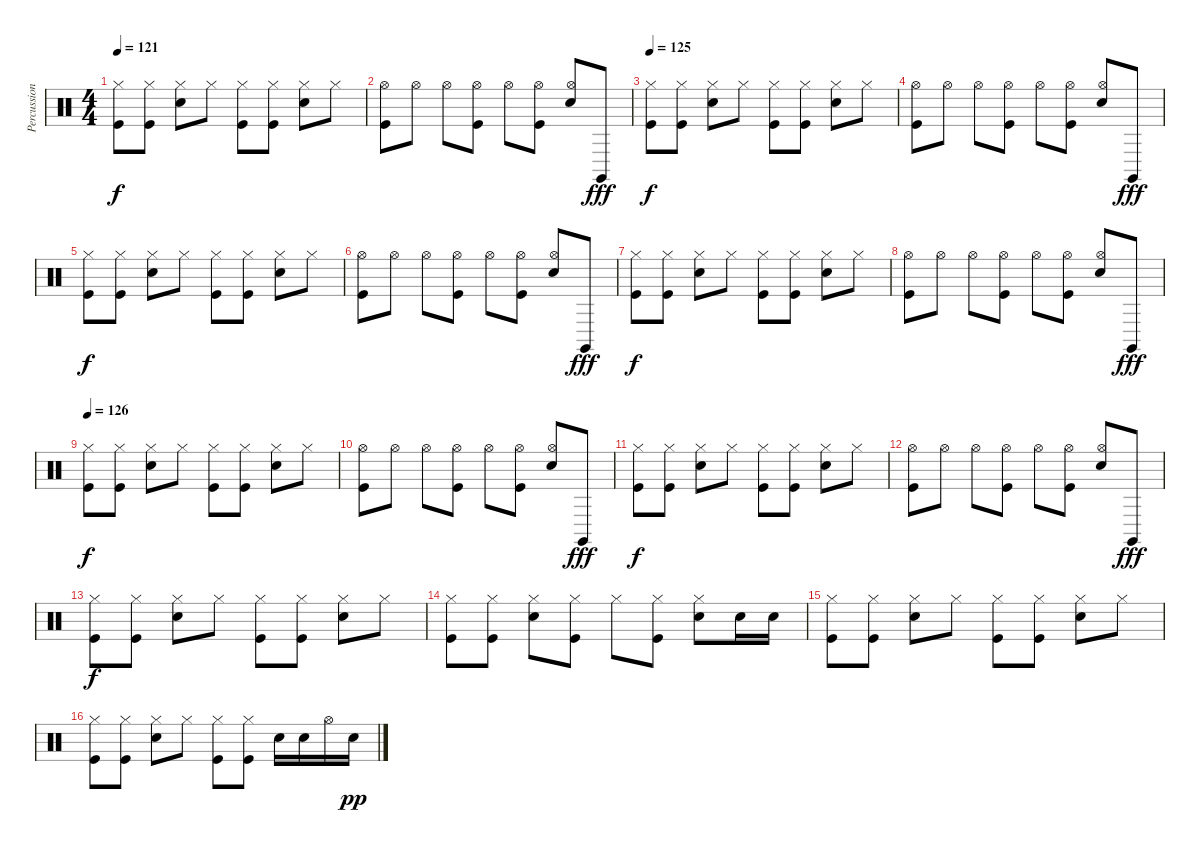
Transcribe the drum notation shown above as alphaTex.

\track ("Percussion" "Percussion") {instrument percussion}
\staff {score}
\articulation defaults
\ts (4 4)
\tempo 121
\clef neutral
\ks c
("Hi-Hat (closed)" "Kick (hit)").8{dy f} ("Hi-Hat (closed)" "Kick (hit)").8 ("Hi-Hat (closed)" "Snare (hit) 2").8 "Hi-Hat (closed)".8 ("Hi-Hat (closed)" "Kick (hit)").8 ("Hi-Hat (closed)" "Kick (hit)").8 ("Hi-Hat (closed)" "Snare (hit) 2").8 "Hi-Hat (closed)".8 |
("Hi-Hat (open)" "Kick (hit)").8 "Hi-Hat (open)".8 "Hi-Hat (open)".8 ("Hi-Hat (open)" "Kick (hit)").8 "Hi-Hat (open)".8 ("Hi-Hat (open)" "Kick (hit)").8 ("Hi-Hat (open)" "Snare (hit) 2").8 "Claves (hit)".8{dy fff} |
\tempo 125
("Hi-Hat (closed)" "Kick (hit)").8{dy f} ("Hi-Hat (closed)" "Kick (hit)").8 ("Hi-Hat (closed)" "Snare (hit) 2").8 "Hi-Hat (closed)".8 ("Hi-Hat (closed)" "Kick (hit)").8 ("Hi-Hat (closed)" "Kick (hit)").8 ("Hi-Hat (closed)" "Snare (hit) 2").8 "Hi-Hat (closed)".8 |
("Hi-Hat (open)" "Kick (hit)").8 "Hi-Hat (open)".8 "Hi-Hat (open)".8 ("Hi-Hat (open)" "Kick (hit)").8 "Hi-Hat (open)".8 ("Hi-Hat (open)" "Kick (hit)").8 ("Hi-Hat (open)" "Snare (hit) 2").8 "Claves (hit)".8{dy fff} |
("Hi-Hat (closed)" "Kick (hit)").8{dy f} ("Hi-Hat (closed)" "Kick (hit)").8 ("Hi-Hat (closed)" "Snare (hit) 2").8 "Hi-Hat (closed)".8 ("Hi-Hat (closed)" "Kick (hit)").8 ("Hi-Hat (closed)" "Kick (hit)").8 ("Hi-Hat (closed)" "Snare (hit) 2").8 "Hi-Hat (closed)".8 |
("Hi-Hat (open)" "Kick (hit)").8 "Hi-Hat (open)".8 "Hi-Hat (open)".8 ("Hi-Hat (open)" "Kick (hit)").8 "Hi-Hat (open)".8 ("Hi-Hat (open)" "Kick (hit)").8 ("Hi-Hat (open)" "Snare (hit) 2").8 "Claves (hit)".8{dy fff} |
("Hi-Hat (closed)" "Kick (hit)").8{dy f} ("Hi-Hat (closed)" "Kick (hit)").8 ("Hi-Hat (closed)" "Snare (hit) 2").8 "Hi-Hat (closed)".8 ("Hi-Hat (closed)" "Kick (hit)").8 ("Hi-Hat (closed)" "Kick (hit)").8 ("Hi-Hat (closed)" "Snare (hit) 2").8 "Hi-Hat (closed)".8 |
("Hi-Hat (open)" "Kick (hit)").8 "Hi-Hat (open)".8 "Hi-Hat (open)".8 ("Hi-Hat (open)" "Kick (hit)").8 "Hi-Hat (open)".8 ("Hi-Hat (open)" "Kick (hit)").8 ("Hi-Hat (open)" "Snare (hit) 2").8 "Claves (hit)".8{dy fff} |
\tempo 126
("Hi-Hat (closed)" "Kick (hit)").8{dy f} ("Hi-Hat (closed)" "Kick (hit)").8 ("Hi-Hat (closed)" "Snare (hit) 2").8 "Hi-Hat (closed)".8 ("Hi-Hat (closed)" "Kick (hit)").8 ("Hi-Hat (closed)" "Kick (hit)").8 ("Hi-Hat (closed)" "Snare (hit) 2").8 "Hi-Hat (closed)".8 |
("Hi-Hat (open)" "Kick (hit)").8 "Hi-Hat (open)".8 "Hi-Hat (open)".8 ("Hi-Hat (open)" "Kick (hit)").8 "Hi-Hat (open)".8 ("Hi-Hat (open)" "Kick (hit)").8 ("Hi-Hat (open)" "Snare (hit) 2").8 "Claves (hit)".8{dy fff} |
("Hi-Hat (closed)" "Kick (hit)").8{dy f} ("Hi-Hat (closed)" "Kick (hit)").8 ("Hi-Hat (closed)" "Snare (hit) 2").8 "Hi-Hat (closed)".8 ("Hi-Hat (closed)" "Kick (hit)").8 ("Hi-Hat (closed)" "Kick (hit)").8 ("Hi-Hat (closed)" "Snare (hit) 2").8 "Hi-Hat (closed)".8 |
("Hi-Hat (open)" "Kick (hit)").8 "Hi-Hat (open)".8 "Hi-Hat (open)".8 ("Hi-Hat (open)" "Kick (hit)").8 "Hi-Hat (open)".8 ("Hi-Hat (open)" "Kick (hit)").8 ("Hi-Hat (open)" "Snare (hit) 2").8 "Claves (hit)".8{dy fff} |
("Hi-Hat (closed)" "Kick (hit)").8{dy f} ("Hi-Hat (closed)" "Kick (hit)").8 ("Hi-Hat (closed)" "Snare (hit) 2").8 "Hi-Hat (closed)".8 ("Hi-Hat (closed)" "Kick (hit)").8 ("Hi-Hat (closed)" "Kick (hit)").8 ("Hi-Hat (closed)" "Snare (hit) 2").8 "Hi-Hat (closed)".8 |
("Hi-Hat (closed)" "Kick (hit)").8 ("Hi-Hat (closed)" "Kick (hit)").8 ("Hi-Hat (closed)" "Snare (hit) 2").8 ("Hi-Hat (closed)" "Kick (hit)").8 "Hi-Hat (closed)".8 ("Hi-Hat (closed)" "Kick (hit)").8 ("Hi-Hat (closed)" "Snare (hit) 2").8 "Snare (hit) 2".16 "Snare (hit) 2".16 |
("Hi-Hat (closed)" "Kick (hit)").8 ("Hi-Hat (closed)" "Kick (hit)").8 ("Hi-Hat (closed)" "Snare (hit) 2").8 "Hi-Hat (closed)".8 ("Hi-Hat (closed)" "Kick (hit)").8 ("Hi-Hat (closed)" "Kick (hit)").8 ("Hi-Hat (closed)" "Snare (hit) 2").8 "Hi-Hat (closed)".8 |
("Hi-Hat (closed)" "Kick (hit)").8 ("Hi-Hat (closed)" "Kick (hit)").8 ("Hi-Hat (closed)" "Snare (hit) 2").8 "Hi-Hat (closed)".8 ("Hi-Hat (closed)" "Kick (hit)").8 ("Hi-Hat (closed)" "Kick (hit)").8 "Snare (hit) 2".16 "Snare (hit) 2".16 "Hi-Hat (open)".16 "Snare (hit) 2".16{dy pp}
